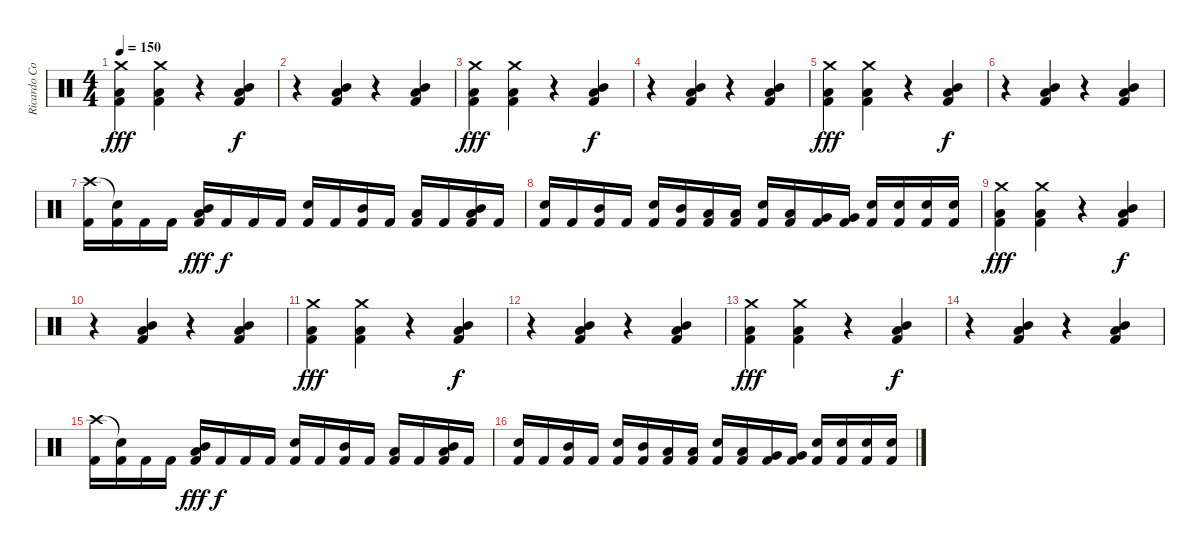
\track ("Ricardo Confessori" "Ricardo Co") {instrument percussion}
\staff {score}
\articulation defaults
\ts (4 4)
\tempo 150
\clef neutral
\ks c
("Crash medium (hit)" "Low Tom (hit)" "Kick (hit) 2").4{dy fff} ("Crash medium (hit)" "Low Tom (hit)" "Kick (hit) 2").4 r.4 ("Mid Tom (hit)" "Low Tom (hit)" "Kick (hit) 2").4{dy f} |
r.4 ("Mid Tom (hit)" "Low Tom (hit)" "Kick (hit) 2").4 r.4 ("Mid Tom (hit)" "Low Tom (hit)" "Kick (hit) 2").4 |
("Crash medium (hit)" "Low Tom (hit)" "Kick (hit) 2").4{dy fff} ("Crash medium (hit)" "Low Tom (hit)" "Kick (hit) 2").4 r.4 ("Mid Tom (hit)" "Low Tom (hit)" "Kick (hit) 2").4{dy f} |
r.4 ("Mid Tom (hit)" "Low Tom (hit)" "Kick (hit) 2").4 r.4 ("Mid Tom (hit)" "Low Tom (hit)" "Kick (hit) 2").4 |
("Crash medium (hit)" "Low Tom (hit)" "Kick (hit) 2").4{dy fff} ("Crash medium (hit)" "Low Tom (hit)" "Kick (hit) 2").4 r.4 ("Mid Tom (hit)" "Low Tom (hit)" "Kick (hit) 2").4{dy f} |
r.4 ("Mid Tom (hit)" "Low Tom (hit)" "Kick (hit) 2").4 r.4 ("Mid Tom (hit)" "Low Tom (hit)" "Kick (hit) 2").4 |
("Crash high (hit)" "Kick (hit) 2").16 ("Snare (hit)"{t} "Kick (hit) 2").16 "Kick (hit) 2".16 "Kick (hit) 2".16 ("Low Tom (hit)" "Mid Tom (hit)" "Kick (hit) 2").16{dy fff} "Kick (hit) 2".16{dy f} "Kick (hit) 2".16 "Kick (hit) 2".16 ("Electric Snare (hit)" "Kick (hit) 2").16 "Kick (hit) 2".16 ("Mid Tom (hit)" "Kick (hit) 2").16 "Kick (hit) 2".16 ("Low Tom (hit)" "Kick (hit) 2").16 "Kick (hit) 2".16 ("Low Tom (hit)" "Mid Tom (hit)" "Kick (hit) 2").16 "Kick (hit) 2".16 |
("Electric Snare (hit)" "Kick (hit) 2").16 "Kick (hit) 2".16 ("Mid Tom (hit)" "Kick (hit) 2").16 "Kick (hit) 2".16 ("Electric Snare (hit)" "Kick (hit) 2").16 ("Mid Tom (hit)" "Kick (hit) 2").16 ("Low Tom (hit)" "Kick (hit) 2").16 ("Low Tom (hit)" "Kick (hit) 2").16 ("Electric Snare (hit)" "Kick (hit) 2").16 ("Low Tom (hit)" "Kick (hit) 2").16 ("Very Low Tom (hit)" "Kick (hit) 2").16 ("Very Low Tom (hit)" "Kick (hit) 2").16 ("Electric Snare (hit)" "Kick (hit) 2").16 ("Electric Snare (hit)" "Kick (hit) 2").16 ("Electric Snare (hit)" "Kick (hit) 2").16 ("Electric Snare (hit)" "Kick (hit) 2").16 |
("Crash medium (hit)" "Low Tom (hit)" "Kick (hit) 2").4{dy fff} ("Crash medium (hit)" "Low Tom (hit)" "Kick (hit) 2").4 r.4 ("Mid Tom (hit)" "Low Tom (hit)" "Kick (hit) 2").4{dy f} |
r.4 ("Mid Tom (hit)" "Low Tom (hit)" "Kick (hit) 2").4 r.4 ("Mid Tom (hit)" "Low Tom (hit)" "Kick (hit) 2").4 |
("Crash medium (hit)" "Low Tom (hit)" "Kick (hit) 2").4{dy fff} ("Crash medium (hit)" "Low Tom (hit)" "Kick (hit) 2").4 r.4 ("Mid Tom (hit)" "Low Tom (hit)" "Kick (hit) 2").4{dy f} |
r.4 ("Mid Tom (hit)" "Low Tom (hit)" "Kick (hit) 2").4 r.4 ("Mid Tom (hit)" "Low Tom (hit)" "Kick (hit) 2").4 |
("Crash medium (hit)" "Low Tom (hit)" "Kick (hit) 2").4{dy fff} ("Crash medium (hit)" "Low Tom (hit)" "Kick (hit) 2").4 r.4 ("Mid Tom (hit)" "Low Tom (hit)" "Kick (hit) 2").4{dy f} |
r.4 ("Mid Tom (hit)" "Low Tom (hit)" "Kick (hit) 2").4 r.4 ("Mid Tom (hit)" "Low Tom (hit)" "Kick (hit) 2").4 |
("Crash high (hit)" "Kick (hit) 2").16 ("Snare (hit)"{t} "Kick (hit) 2").16 "Kick (hit) 2".16 "Kick (hit) 2".16 ("Low Tom (hit)" "Mid Tom (hit)" "Kick (hit) 2").16{dy fff} "Kick (hit) 2".16{dy f} "Kick (hit) 2".16 "Kick (hit) 2".16 ("Electric Snare (hit)" "Kick (hit) 2").16 "Kick (hit) 2".16 ("Mid Tom (hit)" "Kick (hit) 2").16 "Kick (hit) 2".16 ("Low Tom (hit)" "Kick (hit) 2").16 "Kick (hit) 2".16 ("Low Tom (hit)" "Mid Tom (hit)" "Kick (hit) 2").16 "Kick (hit) 2".16 |
("Electric Snare (hit)" "Kick (hit) 2").16 "Kick (hit) 2".16 ("Mid Tom (hit)" "Kick (hit) 2").16 "Kick (hit) 2".16 ("Electric Snare (hit)" "Kick (hit) 2").16 ("Mid Tom (hit)" "Kick (hit) 2").16 ("Low Tom (hit)" "Kick (hit) 2").16 ("Low Tom (hit)" "Kick (hit) 2").16 ("Electric Snare (hit)" "Kick (hit) 2").16 ("Low Tom (hit)" "Kick (hit) 2").16 ("Very Low Tom (hit)" "Kick (hit) 2").16 ("Very Low Tom (hit)" "Kick (hit) 2").16 ("Electric Snare (hit)" "Kick (hit) 2").16 ("Electric Snare (hit)" "Kick (hit) 2").16 ("Electric Snare (hit)" "Kick (hit) 2").16 ("Electric Snare (hit)" "Kick (hit) 2").16
